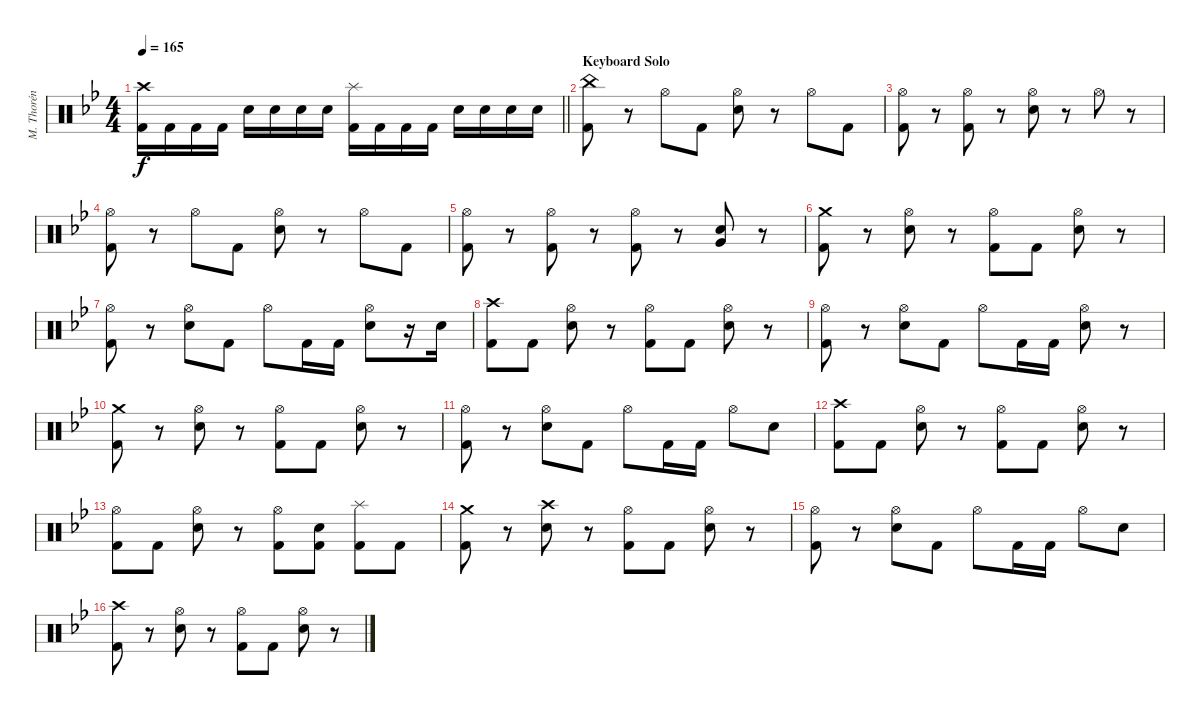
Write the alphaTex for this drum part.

\track ("M. Thorén (Drums)" "M. Thorén ") {instrument percussion}
\staff {score}
\articulation defaults
\ts (4 4)
\tempo 165
\clef neutral
\barLineRight lightlight
\ks gminor
("Crash high (hit)" "Kick (hit) 2").16{dy f} "Kick (hit) 2".16 "Kick (hit) 2".16 "Kick (hit) 2".16 "Electric Snare (hit)".16 "Electric Snare (hit)".16 "Electric Snare (hit)".16 "Electric Snare (hit)".16 ("Splash (hit)" "Kick (hit) 2").16 "Kick (hit) 2".16 "Kick (hit) 2".16 "Kick (hit) 2".16 "Electric Snare (hit)".16 "Electric Snare (hit)".16 "Electric Snare (hit)".16 "Electric Snare (hit)".16 |
\section ("" "Keyboard Solo")
("China (hit)" "Kick (hit) 2").8 r.8 "Hi-Hat (open)".8 "Kick (hit) 2".8 ("Hi-Hat (open)" "Electric Snare (hit)").8 r.8 "Hi-Hat (open)".8 "Kick (hit) 2".8 |
("Hi-Hat (open)" "Kick (hit) 2").8 r.8 ("Hi-Hat (open)" "Kick (hit) 2").8 r.8 ("Hi-Hat (open)" "Electric Snare (hit)").8 r.8 "Hi-Hat (open)".8 r.8 |
("Hi-Hat (open)" "Kick (hit) 2").8 r.8 "Hi-Hat (open)".8 "Kick (hit) 2".8 ("Hi-Hat (open)" "Electric Snare (hit)").8 r.8 "Hi-Hat (open)".8 "Kick (hit) 2".8 |
("Hi-Hat (open)" "Kick (hit) 2").8 r.8 ("Hi-Hat (open)" "Kick (hit) 2").8 r.8 ("Hi-Hat (open)" "Kick (hit) 2").8 r.8 ("Electric Snare (hit)" "Very Low Tom (hit)").8 r.8 |
("Crash medium (hit)" "Kick (hit) 2").8 r.8 ("Hi-Hat (open)" "Electric Snare (hit)").8 r.8 ("Hi-Hat (open)" "Kick (hit) 2").8 "Kick (hit) 2".8 ("Hi-Hat (open)" "Electric Snare (hit)").8 r.8 |
("Hi-Hat (open)" "Kick (hit) 2").8 r.8 ("Hi-Hat (open)" "Electric Snare (hit)").8 "Kick (hit) 2".8 "Hi-Hat (open)".8 "Kick (hit) 2".16 "Kick (hit) 2".16 ("Hi-Hat (open)" "Electric Snare (hit)").8 r.16 "Electric Snare (hit)".16 |
("Crash high (hit)" "Kick (hit) 2").8 "Kick (hit) 2".8 ("Hi-Hat (open)" "Electric Snare (hit)").8 r.8 ("Hi-Hat (open)" "Kick (hit) 2").8 "Kick (hit) 2".8 ("Hi-Hat (open)" "Electric Snare (hit)").8 r.8 |
("Hi-Hat (open)" "Kick (hit) 2").8 r.8 ("Hi-Hat (open)" "Electric Snare (hit)").8 "Kick (hit) 2".8 "Hi-Hat (open)".8 "Kick (hit) 2".16 "Kick (hit) 2".16 ("Hi-Hat (open)" "Electric Snare (hit)").8 r.8 |
("Crash medium (hit)" "Kick (hit) 2").8 r.8 ("Hi-Hat (open)" "Electric Snare (hit)").8 r.8 ("Hi-Hat (open)" "Kick (hit) 2").8 "Kick (hit) 2".8 ("Hi-Hat (open)" "Electric Snare (hit)").8 r.8 |
("Hi-Hat (open)" "Kick (hit) 2").8 r.8 ("Hi-Hat (open)" "Electric Snare (hit)").8 "Kick (hit) 2".8 "Hi-Hat (open)".8 "Kick (hit) 2".16 "Kick (hit) 2".16 "Hi-Hat (open)".8 "Electric Snare (hit)".8 |
("Crash high (hit)" "Kick (hit) 2").8 "Kick (hit) 2".8 ("Hi-Hat (open)" "Electric Snare (hit)").8 r.8 ("Hi-Hat (open)" "Kick (hit) 2").8 "Kick (hit) 2".8 ("Hi-Hat (open)" "Electric Snare (hit)").8 r.8 |
("Hi-Hat (open)" "Kick (hit) 2").8 "Kick (hit) 2".8 ("Hi-Hat (open)" "Electric Snare (hit)").8 r.8 ("Hi-Hat (open)" "Kick (hit) 2").8 ("Electric Snare (hit)" "Kick (hit) 2").8 ("Splash (hit)" "Kick (hit) 2").8 "Kick (hit) 2".8 |
("Crash medium (hit)" "Kick (hit) 2").8 r.8 ("Crash high (hit)" "Electric Snare (hit)").8 r.8 ("Hi-Hat (open)" "Kick (hit) 2").8 "Kick (hit) 2".8 ("Hi-Hat (open)" "Electric Snare (hit)").8 r.8 |
("Hi-Hat (open)" "Kick (hit) 2").8 r.8 ("Hi-Hat (open)" "Electric Snare (hit)").8 "Kick (hit) 2".8 "Hi-Hat (open)".8 "Kick (hit) 2".16 "Kick (hit) 2".16 "Hi-Hat (open)".8 "Electric Snare (hit)".8 |
("Crash high (hit)" "Kick (hit) 2").8 r.8 ("Hi-Hat (open)" "Electric Snare (hit)").8 r.8 ("Hi-Hat (open)" "Kick (hit) 2").8 "Kick (hit) 2".8 ("Hi-Hat (open)" "Electric Snare (hit)").8 r.8
